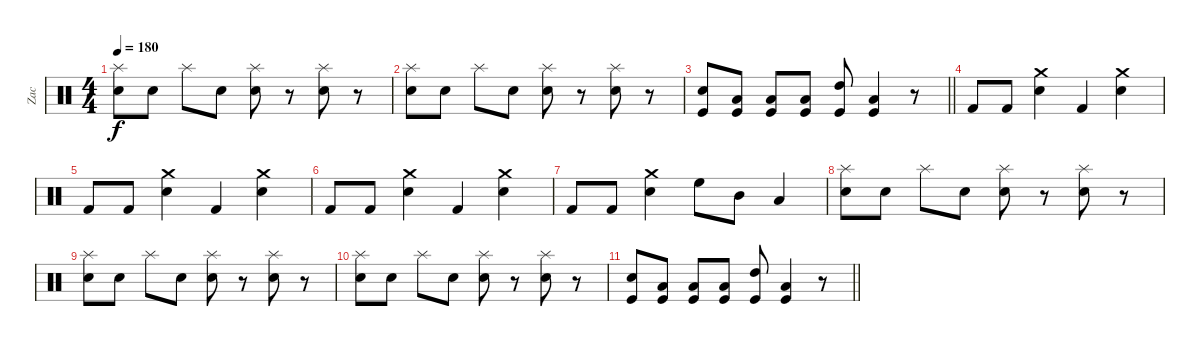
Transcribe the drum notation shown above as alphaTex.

\track ("Zac" "Zac") {instrument percussion}
\staff {score}
\articulation defaults
\ts (4 4)
\tempo 180
\clef neutral
\ks c
("Electric Snare (hit)" "Splash (hit)").8{dy f} "Electric Snare (hit)".8 "Splash (hit)".8 "Electric Snare (hit)".8 ("Electric Snare (hit)" "Splash (hit)").8 r.8 ("Electric Snare (hit)" "Splash (hit)").8 r.8 |
("Electric Snare (hit)" "Splash (hit)").8 "Electric Snare (hit)".8 "Splash (hit)".8 "Electric Snare (hit)".8 ("Electric Snare (hit)" "Splash (hit)").8 r.8 ("Electric Snare (hit)" "Splash (hit)").8 r.8 |
\barLineRight lightlight
("Kick (hit)" "Electric Snare (hit)").8 ("Kick (hit)" "Low Tom (hit)").8 ("Kick (hit)" "Low Tom (hit)").8 ("Kick (hit)" "Low Tom (hit)").8 ("Kick (hit)" "High Tom (hit)").8 ("Kick (hit)" "Low Tom (hit)").4 r.8 |
"Kick (hit) 2".8 "Kick (hit) 2".8 ("Crash medium (hit)" "Electric Snare (hit)").4 "Kick (hit) 2".4 ("Crash medium (hit)" "Electric Snare (hit)").4 |
"Kick (hit) 2".8 "Kick (hit) 2".8 ("Crash medium (hit)" "Electric Snare (hit)").4 "Kick (hit) 2".4 ("Crash medium (hit)" "Electric Snare (hit)").4 |
"Kick (hit) 2".8 "Kick (hit) 2".8 ("Crash medium (hit)" "Electric Snare (hit)").4 "Kick (hit) 2".4 ("Crash medium (hit)" "Electric Snare (hit)").4 |
"Kick (hit) 2".8 "Kick (hit) 2".8 ("Crash medium (hit)" "Electric Snare (hit)").4 "High Floor Tom (hit)".8 "Mid Tom (hit)".8 "Low Tom (hit)".4 |
("Electric Snare (hit)" "Splash (hit)").8 "Electric Snare (hit)".8 "Splash (hit)".8 "Electric Snare (hit)".8 ("Electric Snare (hit)" "Splash (hit)").8 r.8 ("Electric Snare (hit)" "Splash (hit)").8 r.8 |
("Electric Snare (hit)" "Splash (hit)").8 "Electric Snare (hit)".8 "Splash (hit)".8 "Electric Snare (hit)".8 ("Electric Snare (hit)" "Splash (hit)").8 r.8 ("Electric Snare (hit)" "Splash (hit)").8 r.8 |
("Electric Snare (hit)" "Splash (hit)").8 "Electric Snare (hit)".8 "Splash (hit)".8 "Electric Snare (hit)".8 ("Electric Snare (hit)" "Splash (hit)").8 r.8 ("Electric Snare (hit)" "Splash (hit)").8 r.8 |
\barLineRight lightlight
("Kick (hit)" "Electric Snare (hit)").8 ("Kick (hit)" "Low Tom (hit)").8 ("Kick (hit)" "Low Tom (hit)").8 ("Kick (hit)" "Low Tom (hit)").8 ("Kick (hit)" "High Tom (hit)").8 ("Kick (hit)" "Low Tom (hit)").4 r.8
